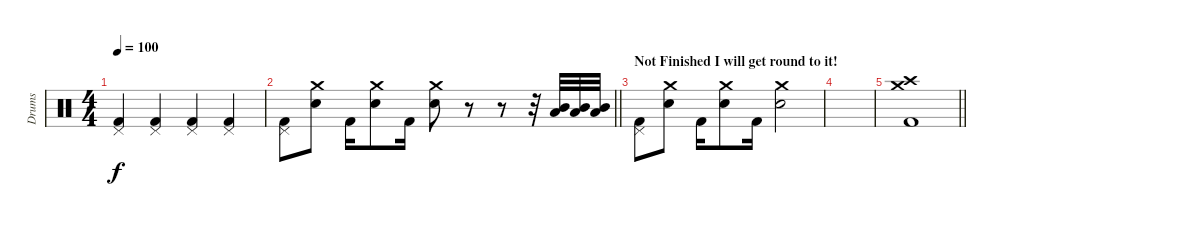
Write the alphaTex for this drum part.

\track ("Drums" "Drums") {instrument percussion}
\staff {score}
\articulation defaults
\ts (4 4)
\tempo 100
\clef neutral
\ks c
("Pedal Hi-Hat (hit)" "Kick (hit) 2").4{dy f} ("Pedal Hi-Hat (hit)" "Kick (hit) 2").4 ("Pedal Hi-Hat (hit)" "Kick (hit) 2").4 ("Pedal Hi-Hat (hit)" "Kick (hit) 2").4 |
\barLineRight lightlight
("Pedal Hi-Hat (hit)" "Kick (hit) 2").8 ("Crash medium (hit)" "Electric Snare (hit)").8 "Kick (hit) 2".16 ("Crash medium (hit)" "Electric Snare (hit)").8 "Kick (hit) 2".16 ("Crash medium (hit)" "Electric Snare (hit)").8 r.8 r.8 r.32 ("Mid Tom (hit)" "Low Floor Tom (hit)").32 ("Mid Tom (hit)" "Low Floor Tom (hit)").32 ("Mid Tom (hit)" "Low Floor Tom (hit)").32 |
\section ("" "Not Finished I will get round to it!")
("Pedal Hi-Hat (hit)" "Kick (hit) 2").8 ("Crash medium (hit)" "Electric Snare (hit)").8 "Kick (hit) 2".16 ("Crash medium (hit)" "Electric Snare (hit)").8 "Kick (hit) 2".16 ("Crash medium (hit)" "Electric Snare (hit)").2 |
|
\barLineRight lightlight
("Crash medium (hit)" "Crash high (hit)" "Kick (hit) 2").1
